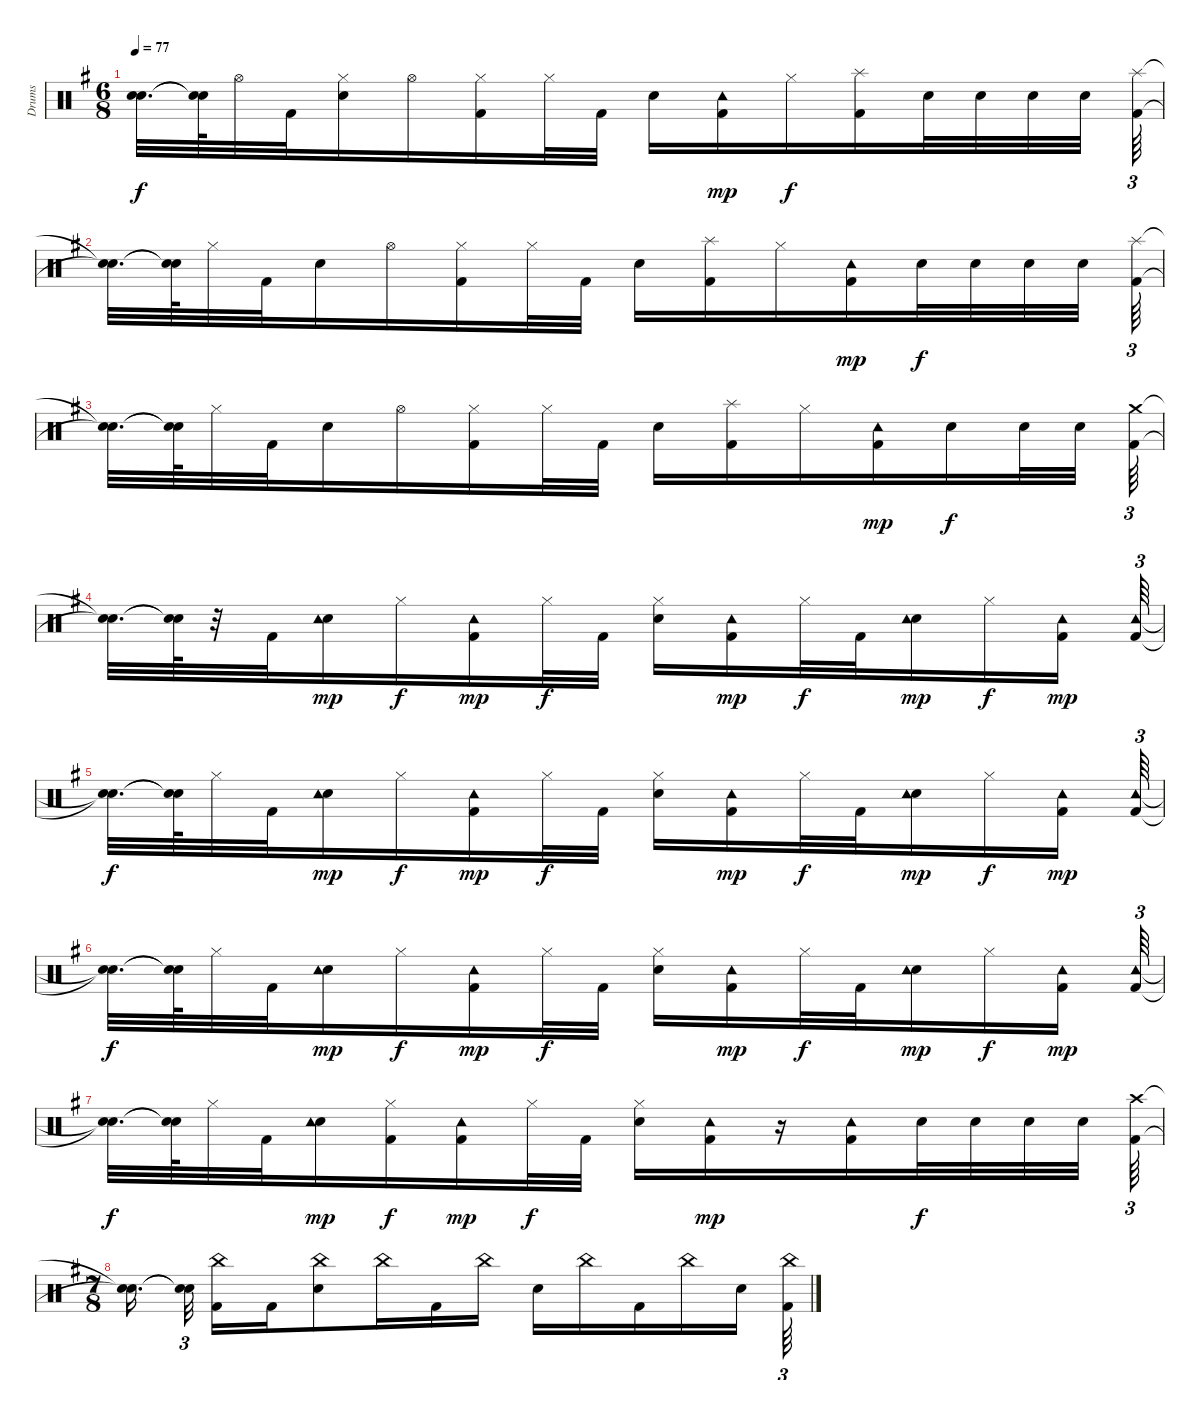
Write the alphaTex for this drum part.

\track ("Drums" "Drums") {instrument percussion}
\staff {score}
\articulation defaults
\ts (6 8)
\tempo 77
\clef neutral
\ks g
("Snare (hit)"{t} "Snare (hit)"{t}).32{d dy f} ("Snare (hit)"{t} "Snare (hit)"{t}).64 "Hi-Hat (open)".32 "Kick (hit) 2".32 ("Electric Snare (hit)" "Hi-Hat (closed)").16 "Hi-Hat (open)".16 ("Kick (hit) 2" "Hi-Hat (closed)").16 "Hi-Hat (closed)".32 "Kick (hit) 2".32 "Electric Snare (hit)".16 ("Kick (hit) 2" "Tambourine (hit)").16{dy mp} "Hi-Hat (closed)".16{dy f} ("Kick (hit) 2" "Splash (hit)").16 "Electric Snare (hit)".32 "Electric Snare (hit)".32 "Electric Snare (hit)".32 "Electric Snare (hit)".32 ("Splash (hit)" "Kick (hit) 2").64{tu (3 2)} |
("Snare (hit)"{t} "Snare (hit)"{t}).32{d} ("Snare (hit)"{t} "Snare (hit)"{t}).64 "Hi-Hat (closed)".32 "Kick (hit) 2".32 "Electric Snare (hit)".16 "Hi-Hat (open)".16 ("Kick (hit) 2" "Hi-Hat (closed)").16 "Hi-Hat (closed)".32 "Kick (hit) 2".32 "Electric Snare (hit)".16 ("Kick (hit) 2" "Splash (hit)").16 "Hi-Hat (closed)".16 ("Kick (hit) 2" "Tambourine (hit)").16{dy mp} "Electric Snare (hit)".32{dy f} "Electric Snare (hit)".32 "Electric Snare (hit)".32 "Electric Snare (hit)".32 ("Kick (hit) 2" "Splash (hit)").64{tu (3 2)} |
("Snare (hit)"{t} "Snare (hit)"{t}).32{d} ("Snare (hit)"{t} "Snare (hit)"{t}).64 "Hi-Hat (closed)".32 "Kick (hit) 2".32 "Electric Snare (hit)".16 "Hi-Hat (open)".16 ("Kick (hit) 2" "Hi-Hat (closed)").16 "Hi-Hat (closed)".32 "Kick (hit) 2".32 "Electric Snare (hit)".16 ("Kick (hit) 2" "Splash (hit)").16 "Hi-Hat (closed)".16 ("Kick (hit) 2" "Tambourine (hit)").16{dy mp} "Electric Snare (hit)".16{dy f} "Electric Snare (hit)".32 "Electric Snare (hit)".32 ("Kick (hit) 2" "Crash medium (hit)").64{tu (3 2)} |
("Snare (hit)"{t} "Snare (hit)"{t}).32{d} ("Snare (hit)"{t} "Snare (hit)"{t}).64 r.32 "Kick (hit) 2".32 ("Electric Snare (hit)" "Tambourine (hit)").16{dy mp} "Hi-Hat (closed)".16{dy f} ("Kick (hit) 2" "Tambourine (hit)").16{dy mp} "Hi-Hat (closed)".32{dy f} "Kick (hit) 2".32 ("Electric Snare (hit)" "Hi-Hat (closed)").16 ("Kick (hit) 2" "Tambourine (hit)").16{dy mp} "Hi-Hat (closed)".32{dy f} "Kick (hit) 2".32 ("Electric Snare (hit)" "Tambourine (hit)").16{dy mp} "Hi-Hat (closed)".16{dy f} ("Kick (hit) 2" "Tambourine (hit)").16{dy mp} ("Kick (hit) 2" "Tambourine (hit)").64{tu (3 2)} |
("Snare (hit)"{t} "Snare (hit)"{t}).32{d dy f} ("Snare (hit)"{t} "Snare (hit)"{t}).64 "Hi-Hat (closed)".32 "Kick (hit) 2".32 ("Electric Snare (hit)" "Tambourine (hit)").16{dy mp} "Hi-Hat (closed)".16{dy f} ("Kick (hit) 2" "Tambourine (hit)").16{dy mp} "Hi-Hat (closed)".32{dy f} "Kick (hit) 2".32 ("Electric Snare (hit)" "Hi-Hat (closed)").16 ("Kick (hit) 2" "Tambourine (hit)").16{dy mp} "Hi-Hat (closed)".32{dy f} "Kick (hit) 2".32 ("Electric Snare (hit)" "Tambourine (hit)").16{dy mp} "Hi-Hat (closed)".16{dy f} ("Kick (hit) 2" "Tambourine (hit)").16{dy mp} ("Kick (hit) 2" "Tambourine (hit)").64{tu (3 2)} |
("Snare (hit)"{t} "Snare (hit)"{t}).32{d dy f} ("Snare (hit)"{t} "Snare (hit)"{t}).64 "Hi-Hat (closed)".32 "Kick (hit) 2".32 ("Electric Snare (hit)" "Tambourine (hit)").16{dy mp} "Hi-Hat (closed)".16{dy f} ("Kick (hit) 2" "Tambourine (hit)").16{dy mp} "Hi-Hat (closed)".32{dy f} "Kick (hit) 2".32 ("Electric Snare (hit)" "Hi-Hat (closed)").16 ("Kick (hit) 2" "Tambourine (hit)").16{dy mp} "Hi-Hat (closed)".32{dy f} "Kick (hit) 2".32 ("Electric Snare (hit)" "Tambourine (hit)").16{dy mp} "Hi-Hat (closed)".16{dy f} ("Kick (hit) 2" "Tambourine (hit)").16{dy mp} ("Kick (hit) 2" "Tambourine (hit)").64{tu (3 2)} |
("Snare (hit)"{t} "Snare (hit)"{t}).32{d dy f} ("Snare (hit)"{t} "Snare (hit)"{t}).64 "Hi-Hat (closed)".32 "Kick (hit) 2".32 ("Electric Snare (hit)" "Tambourine (hit)").16{dy mp} ("Hi-Hat (closed)" "Kick (hit) 2").16{dy f} ("Kick (hit) 2" "Tambourine (hit)").16{dy mp} "Hi-Hat (closed)".32{dy f} "Kick (hit) 2".32 ("Electric Snare (hit)" "Hi-Hat (closed)").16 ("Kick (hit) 2" "Tambourine (hit)").16{dy mp} r.16 ("Kick (hit) 2" "Tambourine (hit)").16 "Electric Snare (hit)".32{dy f} "Electric Snare (hit)".32 "Electric Snare (hit)".32 "Electric Snare (hit)".32 ("Kick (hit) 2" "Crash high (hit)").64{tu (3 2)} |
\ts (7 8)
("Snare (hit)"{t} "Snare (hit)"{t}).16{d beam splitsecondary} ("Snare (hit)"{t} "Snare (hit)"{t}).32{tu (3 2)} ("China (hit)" "Kick (hit) 2").16 "Kick (hit) 2".16 ("Electric Snare (hit)" "China (hit)").8 "China (hit)".16 "Kick (hit) 2".16 "China (hit)".16 "Electric Snare (hit)".16 "China (hit)".16 "Kick (hit) 2".16 "China (hit)".16 "Electric Snare (hit)".16 ("Kick (hit) 2" "China (hit)").64{tu (3 2)}
